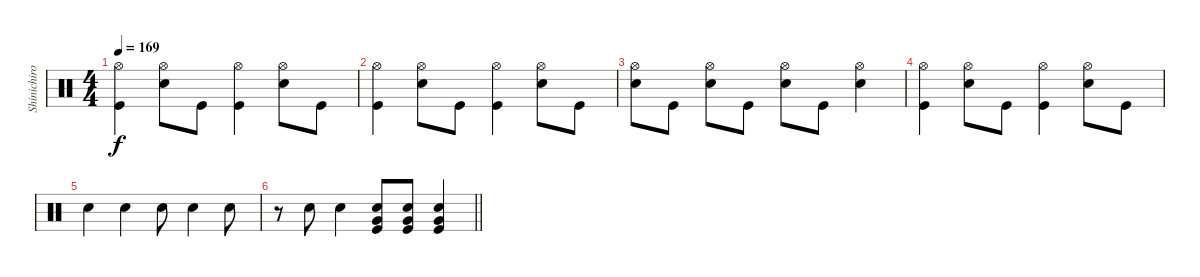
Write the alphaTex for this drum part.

\track ("Shinichiro Sato drums" "Shinichiro") {instrument percussion}
\staff {score}
\articulation defaults
\ts (4 4)
\tempo 169
\clef neutral
\ks c
("Hi-Hat (open)" "Kick (hit)").4{dy f} ("Hi-Hat (open)" "Snare (hit) 2").8 "Kick (hit)".8 ("Hi-Hat (open)" "Kick (hit)").4 ("Hi-Hat (open)" "Snare (hit) 2").8 "Kick (hit)".8 |
("Hi-Hat (open)" "Kick (hit)").4 ("Hi-Hat (open)" "Snare (hit) 2").8 "Kick (hit)".8 ("Hi-Hat (open)" "Kick (hit)").4 ("Hi-Hat (open)" "Snare (hit) 2").8 "Kick (hit)".8 |
("Hi-Hat (open)" "Snare (hit) 2").8 "Kick (hit)".8 ("Hi-Hat (open)" "Snare (hit) 2").8 "Kick (hit)".8 ("Hi-Hat (open)" "Snare (hit) 2").8 "Kick (hit)".8 ("Hi-Hat (open)" "Snare (hit) 2").4 |
("Hi-Hat (open)" "Kick (hit)").4 ("Hi-Hat (open)" "Snare (hit) 2").8 "Kick (hit)".8 ("Hi-Hat (open)" "Kick (hit)").4 ("Hi-Hat (open)" "Snare (hit) 2").8 "Kick (hit)".8 |
"Snare (hit) 2".4 "Snare (hit) 2".4 "Snare (hit) 2".8 "Snare (hit) 2".4 "Snare (hit) 2".8 |
\barLineRight lightlight
r.8 "Snare (hit) 2".8 "Snare (hit) 2".4 ("Snare (hit) 2" "Very Low Tom (hit)" "Kick (hit)").8 ("Snare (hit) 2" "Very Low Tom (hit)" "Kick (hit)").8 ("Snare (hit) 2" "Very Low Tom (hit)" "Kick (hit)").4
